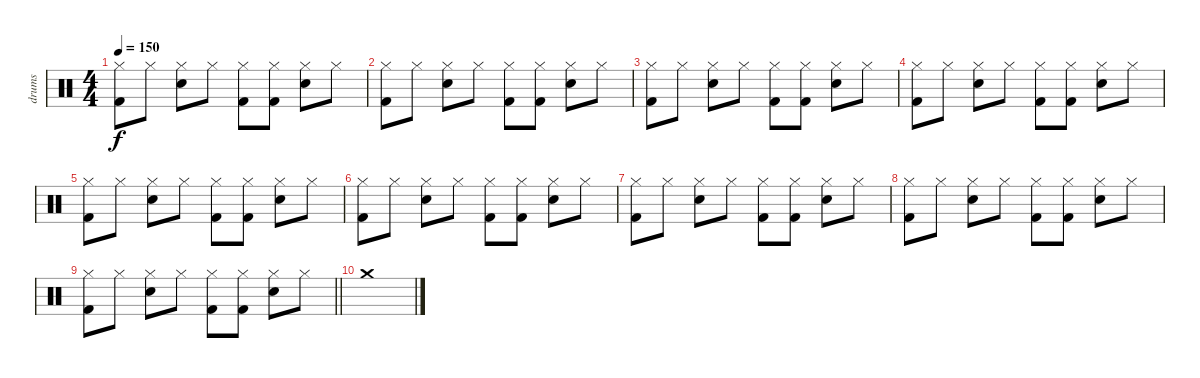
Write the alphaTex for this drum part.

\track ("drums" "drums") {instrument percussion}
\staff {score}
\articulation defaults
\ts (4 4)
\tempo 150
\clef neutral
\ks c
("Kick (hit) 2" "Hi-Hat (closed)").8{dy f} "Hi-Hat (closed)".8 ("Snare (hit) 2" "Hi-Hat (closed)").8 "Hi-Hat (closed)".8 ("Kick (hit) 2" "Hi-Hat (closed)").8 ("Kick (hit) 2" "Hi-Hat (closed)").8 ("Snare (hit) 2" "Hi-Hat (closed)").8 "Hi-Hat (closed)".8 |
("Kick (hit) 2" "Hi-Hat (closed)").8 "Hi-Hat (closed)".8 ("Snare (hit) 2" "Hi-Hat (closed)").8 "Hi-Hat (closed)".8 ("Kick (hit) 2" "Hi-Hat (closed)").8 ("Kick (hit) 2" "Hi-Hat (closed)").8 ("Snare (hit) 2" "Hi-Hat (closed)").8 "Hi-Hat (closed)".8 |
("Kick (hit) 2" "Hi-Hat (closed)").8 "Hi-Hat (closed)".8 ("Snare (hit) 2" "Hi-Hat (closed)").8 "Hi-Hat (closed)".8 ("Kick (hit) 2" "Hi-Hat (closed)").8 ("Kick (hit) 2" "Hi-Hat (closed)").8 ("Snare (hit) 2" "Hi-Hat (closed)").8 "Hi-Hat (closed)".8 |
("Kick (hit) 2" "Hi-Hat (closed)").8 "Hi-Hat (closed)".8 ("Snare (hit) 2" "Hi-Hat (closed)").8 "Hi-Hat (closed)".8 ("Kick (hit) 2" "Hi-Hat (closed)").8 ("Kick (hit) 2" "Hi-Hat (closed)").8 ("Snare (hit) 2" "Hi-Hat (closed)").8 "Hi-Hat (closed)".8 |
("Kick (hit) 2" "Hi-Hat (closed)").8 "Hi-Hat (closed)".8 ("Snare (hit) 2" "Hi-Hat (closed)").8 "Hi-Hat (closed)".8 ("Kick (hit) 2" "Hi-Hat (closed)").8 ("Kick (hit) 2" "Hi-Hat (closed)").8 ("Snare (hit) 2" "Hi-Hat (closed)").8 "Hi-Hat (closed)".8 |
("Kick (hit) 2" "Hi-Hat (closed)").8 "Hi-Hat (closed)".8 ("Snare (hit) 2" "Hi-Hat (closed)").8 "Hi-Hat (closed)".8 ("Kick (hit) 2" "Hi-Hat (closed)").8 ("Kick (hit) 2" "Hi-Hat (closed)").8 ("Snare (hit) 2" "Hi-Hat (closed)").8 "Hi-Hat (closed)".8 |
("Kick (hit) 2" "Hi-Hat (closed)").8 "Hi-Hat (closed)".8 ("Snare (hit) 2" "Hi-Hat (closed)").8 "Hi-Hat (closed)".8 ("Kick (hit) 2" "Hi-Hat (closed)").8 ("Kick (hit) 2" "Hi-Hat (closed)").8 ("Snare (hit) 2" "Hi-Hat (closed)").8 "Hi-Hat (closed)".8 |
("Kick (hit) 2" "Hi-Hat (closed)").8 "Hi-Hat (closed)".8 ("Snare (hit) 2" "Hi-Hat (closed)").8 "Hi-Hat (closed)".8 ("Kick (hit) 2" "Hi-Hat (closed)").8 ("Kick (hit) 2" "Hi-Hat (closed)").8 ("Snare (hit) 2" "Hi-Hat (closed)").8 "Hi-Hat (closed)".8 |
\barLineRight lightlight
("Kick (hit) 2" "Hi-Hat (closed)").8 "Hi-Hat (closed)".8 ("Snare (hit) 2" "Hi-Hat (closed)").8 "Hi-Hat (closed)".8 ("Kick (hit) 2" "Hi-Hat (closed)").8 ("Kick (hit) 2" "Hi-Hat (closed)").8 ("Snare (hit) 2" "Hi-Hat (closed)").8 "Hi-Hat (closed)".8 |
"Crash medium (hit)".1
